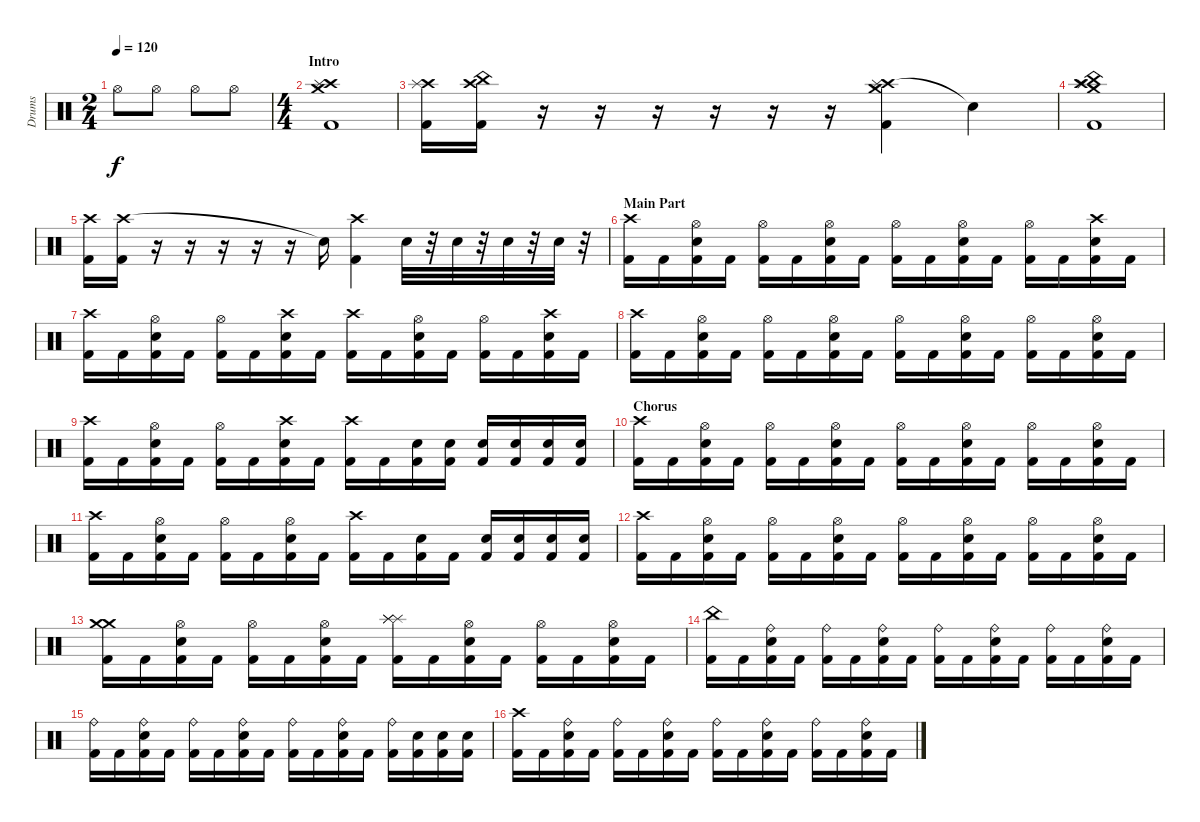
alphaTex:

\track ("Drums" "Drums") {instrument percussion}
\staff {score}
\articulation defaults
\ts (2 4)
\tempo 120
\clef neutral
\ks c "Hi-Hat (open)".8{dy f} "Hi-Hat (open)".8 "Hi-Hat (open)".8 "Hi-Hat (open)".8
|
\ts (4 4)
\section ("" "Intro")
("Crash high (hit)" "Crash medium (hit)" "Splash (hit)" "Kick (hit) 2").1 |
("Crash high (hit)" "Splash (hit)" "Kick (hit) 2").16 ("Crash high (hit)" "China (hit)" "Kick (hit) 2").16 r.16 r.16 r.16 r.16 r.16 r.16 ("Crash high (hit)" "Splash (hit)" "Crash medium (hit)" "Kick (hit) 2").4 "Snare (hit)"{t}.4 |
("Crash high (hit)" "Splash (hit)" "Crash medium (hit)" "China (hit)" "Kick (hit) 2").1 |
("Crash high (hit)" "Kick (hit) 2").16 ("Crash high (hit)" "Kick (hit) 2").16 r.16 r.16 r.16 r.16 r.16 "Snare (hit)"{t}.16 ("Crash high (hit)" "Kick (hit) 2").4 "Snare (hit) 2".32 r.32 "Snare (hit) 2".32 r.32 "Snare (hit) 2".32 r.32 "Snare (hit) 2".32 r.32 |
\section ("" "Main Part")
("Crash high (hit)" "Kick (hit) 2").16 "Kick (hit) 2".16 ("Hi-Hat (open)" "Kick (hit) 2" "Electric Snare (hit)").16 "Kick (hit) 2".16 ("Hi-Hat (open)" "Kick (hit) 2").16 "Kick (hit) 2".16 ("Hi-Hat (open)" "Kick (hit) 2" "Electric Snare (hit)").16 "Kick (hit) 2".16 ("Hi-Hat (open)" "Kick (hit) 2").16 "Kick (hit) 2".16 ("Hi-Hat (open)" "Kick (hit) 2" "Electric Snare (hit)").16 "Kick (hit) 2".16 ("Hi-Hat (open)" "Kick (hit) 2").16 "Kick (hit) 2".16 ("Crash high (hit)" "Kick (hit) 2" "Electric Snare (hit)").16 "Kick (hit) 2".16 |
("Crash high (hit)" "Kick (hit) 2").16 "Kick (hit) 2".16 ("Hi-Hat (open)" "Kick (hit) 2" "Electric Snare (hit)").16 "Kick (hit) 2".16 ("Hi-Hat (open)" "Kick (hit) 2").16 "Kick (hit) 2".16 ("Crash high (hit)" "Kick (hit) 2" "Electric Snare (hit)").16 "Kick (hit) 2".16 ("Crash high (hit)" "Kick (hit) 2").16 "Kick (hit) 2".16 ("Hi-Hat (open)" "Kick (hit) 2" "Electric Snare (hit)").16 "Kick (hit) 2".16 ("Hi-Hat (open)" "Kick (hit) 2").16 "Kick (hit) 2".16 ("Crash high (hit)" "Kick (hit) 2" "Electric Snare (hit)").16 "Kick (hit) 2".16 |
("Crash high (hit)" "Kick (hit) 2").16 "Kick (hit) 2".16 ("Hi-Hat (open)" "Kick (hit) 2" "Electric Snare (hit)").16 "Kick (hit) 2".16 ("Hi-Hat (open)" "Kick (hit) 2").16 "Kick (hit) 2".16 ("Hi-Hat (open)" "Kick (hit) 2" "Electric Snare (hit)").16 "Kick (hit) 2".16 ("Hi-Hat (open)" "Kick (hit) 2").16 "Kick (hit) 2".16 ("Hi-Hat (open)" "Kick (hit) 2" "Electric Snare (hit)").16 "Kick (hit) 2".16 ("Hi-Hat (open)" "Kick (hit) 2").16 "Kick (hit) 2".16 ("Hi-Hat (open)" "Kick (hit) 2" "Electric Snare (hit)").16 "Kick (hit) 2".16 |
("Crash high (hit)" "Kick (hit) 2").16 "Kick (hit) 2".16 ("Hi-Hat (open)" "Kick (hit) 2" "Electric Snare (hit)").16 "Kick (hit) 2".16 ("Hi-Hat (open)" "Kick (hit) 2").16 "Kick (hit) 2".16 ("Crash high (hit)" "Kick (hit) 2" "Electric Snare (hit)").16 "Kick (hit) 2".16 ("Crash high (hit)" "Kick (hit) 2").16 "Kick (hit) 2".16 ("Kick (hit) 2" "Electric Snare (hit)").16 ("Kick (hit) 2" "Electric Snare (hit)").16 ("Kick (hit) 2" "Electric Snare (hit)").16 ("Kick (hit) 2" "Electric Snare (hit)").16 ("Kick (hit) 2" "Electric Snare (hit)").16 ("Kick (hit) 2" "Electric Snare (hit)").16 |
\section ("" "Chorus ")
("Crash high (hit)" "Kick (hit) 2").16 "Kick (hit) 2".16 ("Hi-Hat (open)" "Kick (hit) 2" "Electric Snare (hit)").16 "Kick (hit) 2".16 ("Hi-Hat (open)" "Kick (hit) 2").16 "Kick (hit) 2".16 ("Hi-Hat (open)" "Kick (hit) 2" "Electric Snare (hit)").16 "Kick (hit) 2".16 ("Hi-Hat (open)" "Kick (hit) 2").16 "Kick (hit) 2".16 ("Hi-Hat (open)" "Kick (hit) 2" "Electric Snare (hit)").16 "Kick (hit) 2".16 ("Hi-Hat (open)" "Kick (hit) 2").16 "Kick (hit) 2".16 ("Hi-Hat (open)" "Kick (hit) 2" "Electric Snare (hit)").16 "Kick (hit) 2".16 |
("Crash high (hit)" "Kick (hit) 2").16 "Kick (hit) 2".16 ("Hi-Hat (open)" "Kick (hit) 2" "Electric Snare (hit)").16 "Kick (hit) 2".16 ("Hi-Hat (open)" "Kick (hit) 2").16 "Kick (hit) 2".16 ("Hi-Hat (open)" "Kick (hit) 2" "Electric Snare (hit)").16 "Kick (hit) 2".16 ("Crash high (hit)" "Kick (hit) 2").16 "Kick (hit) 2".16 ("Kick (hit) 2" "Electric Snare (hit)").16 "Kick (hit) 2".16 ("Kick (hit) 2" "Electric Snare (hit)").16 ("Kick (hit) 2" "Electric Snare (hit)").16 ("Kick (hit) 2" "Electric Snare (hit)").16 ("Kick (hit) 2" "Electric Snare (hit)").16 |
("Crash high (hit)" "Kick (hit) 2").16 "Kick (hit) 2".16 ("Hi-Hat (open)" "Kick (hit) 2" "Electric Snare (hit)").16 "Kick (hit) 2".16 ("Hi-Hat (open)" "Kick (hit) 2").16 "Kick (hit) 2".16 ("Hi-Hat (open)" "Kick (hit) 2" "Electric Snare (hit)").16 "Kick (hit) 2".16 ("Hi-Hat (open)" "Kick (hit) 2").16 "Kick (hit) 2".16 ("Hi-Hat (open)" "Kick (hit) 2" "Electric Snare (hit)").16 "Kick (hit) 2".16 ("Hi-Hat (open)" "Kick (hit) 2").16 "Kick (hit) 2".16 ("Hi-Hat (open)" "Kick (hit) 2" "Electric Snare (hit)").16 "Kick (hit) 2".16 |
("Crash medium (hit)" "Crash medium (hit)" "Kick (hit) 2").16 "Kick (hit) 2".16 ("Hi-Hat (open)" "Kick (hit) 2" "Electric Snare (hit)").16 "Kick (hit) 2".16 ("Hi-Hat (open)" "Kick (hit) 2").16 "Kick (hit) 2".16 ("Hi-Hat (open)" "Kick (hit) 2" "Electric Snare (hit)").16 "Kick (hit) 2".16 ("Splash (hit)" "Splash (hit)" "Splash (hit)" "Kick (hit) 2").16 "Kick (hit) 2".16 ("Hi-Hat (open)" "Kick (hit) 2" "Electric Snare (hit)").16 "Kick (hit) 2".16 ("Hi-Hat (open)" "Kick (hit) 2").16 "Kick (hit) 2".16 ("Hi-Hat (open)" "Kick (hit) 2" "Electric Snare (hit)").16 "Kick (hit) 2".16 |
("China (hit)" "Kick (hit) 2").16 "Kick (hit) 2".16 ("Ride (bell)" "Kick (hit) 2" "Electric Snare (hit)").16 "Kick (hit) 2".16 ("Ride (bell)" "Kick (hit) 2").16 "Kick (hit) 2".16 ("Ride (bell)" "Kick (hit) 2" "Electric Snare (hit)").16 "Kick (hit) 2".16 ("Ride (bell)" "Kick (hit) 2").16 "Kick (hit) 2".16 ("Ride (bell)" "Kick (hit) 2" "Electric Snare (hit)").16 "Kick (hit) 2".16 ("Ride (bell)" "Kick (hit) 2").16 "Kick (hit) 2".16 ("Ride (bell)" "Kick (hit) 2" "Electric Snare (hit)").16 "Kick (hit) 2".16 |
("Ride (bell)" "Kick (hit) 2").16 "Kick (hit) 2".16 ("Ride (bell)" "Kick (hit) 2" "Electric Snare (hit)").16 "Kick (hit) 2".16 ("Ride (bell)" "Kick (hit) 2").16 "Kick (hit) 2".16 ("Ride (bell)" "Kick (hit) 2" "Electric Snare (hit)").16 "Kick (hit) 2".16 ("Ride (bell)" "Kick (hit) 2").16 "Kick (hit) 2".16 ("Ride (bell)" "Kick (hit) 2" "Electric Snare (hit)").16 "Kick (hit) 2".16 ("Ride (bell)" "Kick (hit) 2").16 ("Kick (hit) 2" "Electric Snare (hit)").16 ("Kick (hit) 2" "Electric Snare (hit)").16 ("Kick (hit) 2" "Electric Snare (hit)").16 |
("Crash high (hit)" "Kick (hit) 2").16 "Kick (hit) 2".16 ("Ride (bell)" "Kick (hit) 2" "Electric Snare (hit)").16 "Kick (hit) 2".16 ("Ride (bell)" "Kick (hit) 2").16 "Kick (hit) 2".16 ("Ride (bell)" "Kick (hit) 2" "Electric Snare (hit)").16 "Kick (hit) 2".16 ("Ride (bell)" "Kick (hit) 2").16 "Kick (hit) 2".16 ("Ride (bell)" "Kick (hit) 2" "Electric Snare (hit)").16 "Kick (hit) 2".16 ("Ride (bell)" "Kick (hit) 2").16 "Kick (hit) 2".16 ("Ride (bell)" "Kick (hit) 2" "Electric Snare (hit)").16 "Kick (hit) 2".16
